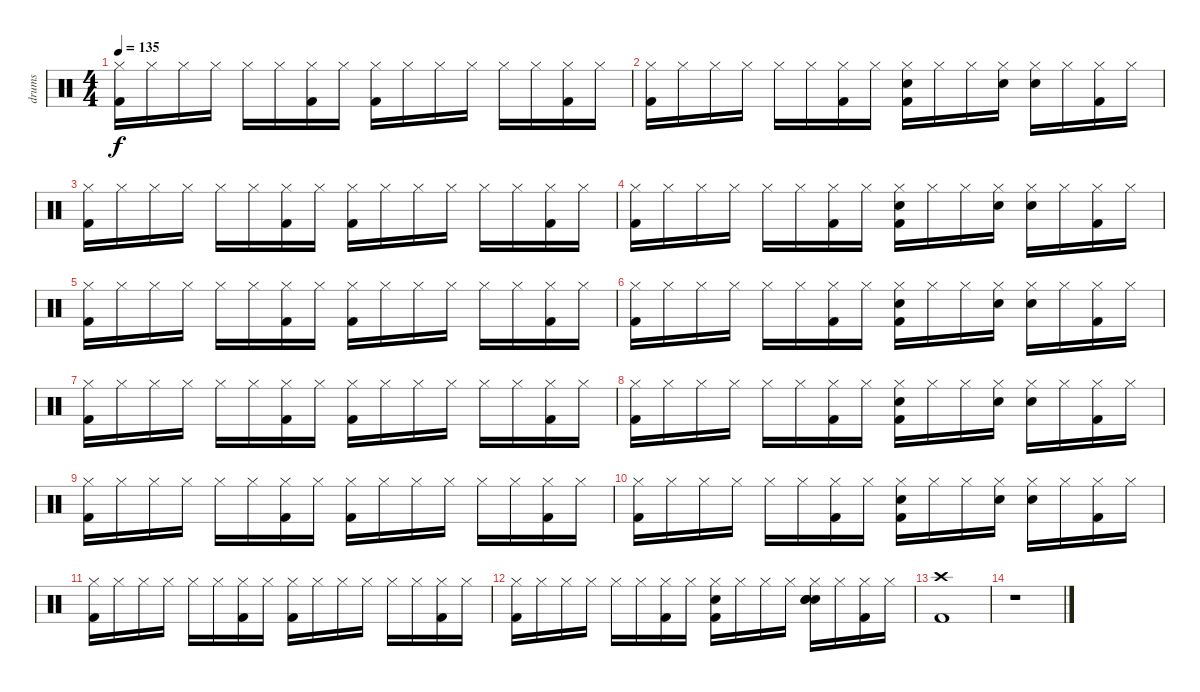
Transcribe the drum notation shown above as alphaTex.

\track ("drums" "drums") {instrument percussion}
\staff {score}
\articulation defaults
\ts (4 4)
\tempo 135
\clef neutral
\ks c
("Hi-Hat (closed)" "Kick (hit) 2").16{dy f} "Hi-Hat (closed)".16 "Hi-Hat (closed)".16 "Hi-Hat (closed)".16 "Hi-Hat (closed)".16 "Hi-Hat (closed)".16 ("Hi-Hat (closed)" "Kick (hit) 2").16 "Hi-Hat (closed)".16 ("Hi-Hat (closed)" "Kick (hit) 2").16 "Hi-Hat (closed)".16 "Hi-Hat (closed)".16 "Hi-Hat (closed)".16 "Hi-Hat (closed)".16 "Hi-Hat (closed)".16 ("Hi-Hat (closed)" "Kick (hit) 2").16 "Hi-Hat (closed)".16 |
("Hi-Hat (closed)" "Kick (hit) 2").16 "Hi-Hat (closed)".16 "Hi-Hat (closed)".16 "Hi-Hat (closed)".16 "Hi-Hat (closed)".16 "Hi-Hat (closed)".16 ("Hi-Hat (closed)" "Kick (hit) 2").16 "Hi-Hat (closed)".16 ("Hi-Hat (closed)" "Electric Snare (hit)" "Kick (hit) 2").16 "Hi-Hat (closed)".16 "Hi-Hat (closed)".16 ("Hi-Hat (closed)" "Electric Snare (hit)").16 ("Hi-Hat (closed)" "Electric Snare (hit)").16 "Hi-Hat (closed)".16 ("Hi-Hat (closed)" "Kick (hit) 2").16 "Hi-Hat (closed)".16 |
("Hi-Hat (closed)" "Kick (hit) 2").16 "Hi-Hat (closed)".16 "Hi-Hat (closed)".16 "Hi-Hat (closed)".16 "Hi-Hat (closed)".16 "Hi-Hat (closed)".16 ("Hi-Hat (closed)" "Kick (hit) 2").16 "Hi-Hat (closed)".16 ("Hi-Hat (closed)" "Kick (hit) 2").16 "Hi-Hat (closed)".16 "Hi-Hat (closed)".16 "Hi-Hat (closed)".16 "Hi-Hat (closed)".16 "Hi-Hat (closed)".16 ("Hi-Hat (closed)" "Kick (hit) 2").16 "Hi-Hat (closed)".16 |
("Hi-Hat (closed)" "Kick (hit) 2").16 "Hi-Hat (closed)".16 "Hi-Hat (closed)".16 "Hi-Hat (closed)".16 "Hi-Hat (closed)".16 "Hi-Hat (closed)".16 ("Hi-Hat (closed)" "Kick (hit) 2").16 "Hi-Hat (closed)".16 ("Hi-Hat (closed)" "Electric Snare (hit)" "Kick (hit) 2").16 "Hi-Hat (closed)".16 "Hi-Hat (closed)".16 ("Hi-Hat (closed)" "Electric Snare (hit)").16 ("Hi-Hat (closed)" "Electric Snare (hit)").16 "Hi-Hat (closed)".16 ("Hi-Hat (closed)" "Kick (hit) 2").16 "Hi-Hat (closed)".16 |
("Hi-Hat (closed)" "Kick (hit) 2").16 "Hi-Hat (closed)".16 "Hi-Hat (closed)".16 "Hi-Hat (closed)".16 "Hi-Hat (closed)".16 "Hi-Hat (closed)".16 ("Hi-Hat (closed)" "Kick (hit) 2").16 "Hi-Hat (closed)".16 ("Hi-Hat (closed)" "Kick (hit) 2").16 "Hi-Hat (closed)".16 "Hi-Hat (closed)".16 "Hi-Hat (closed)".16 "Hi-Hat (closed)".16 "Hi-Hat (closed)".16 ("Hi-Hat (closed)" "Kick (hit) 2").16 "Hi-Hat (closed)".16 |
("Hi-Hat (closed)" "Kick (hit) 2").16 "Hi-Hat (closed)".16 "Hi-Hat (closed)".16 "Hi-Hat (closed)".16 "Hi-Hat (closed)".16 "Hi-Hat (closed)".16 ("Hi-Hat (closed)" "Kick (hit) 2").16 "Hi-Hat (closed)".16 ("Hi-Hat (closed)" "Electric Snare (hit)" "Kick (hit) 2").16 "Hi-Hat (closed)".16 "Hi-Hat (closed)".16 ("Hi-Hat (closed)" "Electric Snare (hit)").16 ("Hi-Hat (closed)" "Electric Snare (hit)").16 "Hi-Hat (closed)".16 ("Hi-Hat (closed)" "Kick (hit) 2").16 "Hi-Hat (closed)".16 |
("Hi-Hat (closed)" "Kick (hit) 2").16 "Hi-Hat (closed)".16 "Hi-Hat (closed)".16 "Hi-Hat (closed)".16 "Hi-Hat (closed)".16 "Hi-Hat (closed)".16 ("Hi-Hat (closed)" "Kick (hit) 2").16 "Hi-Hat (closed)".16 ("Hi-Hat (closed)" "Kick (hit) 2").16 "Hi-Hat (closed)".16 "Hi-Hat (closed)".16 "Hi-Hat (closed)".16 "Hi-Hat (closed)".16 "Hi-Hat (closed)".16 ("Hi-Hat (closed)" "Kick (hit) 2").16 "Hi-Hat (closed)".16 |
("Hi-Hat (closed)" "Kick (hit) 2").16 "Hi-Hat (closed)".16 "Hi-Hat (closed)".16 "Hi-Hat (closed)".16 "Hi-Hat (closed)".16 "Hi-Hat (closed)".16 ("Hi-Hat (closed)" "Kick (hit) 2").16 "Hi-Hat (closed)".16 ("Hi-Hat (closed)" "Electric Snare (hit)" "Kick (hit) 2").16 "Hi-Hat (closed)".16 "Hi-Hat (closed)".16 ("Hi-Hat (closed)" "Electric Snare (hit)").16 ("Hi-Hat (closed)" "Electric Snare (hit)").16 "Hi-Hat (closed)".16 ("Hi-Hat (closed)" "Kick (hit) 2").16 "Hi-Hat (closed)".16 |
("Hi-Hat (closed)" "Kick (hit) 2").16 "Hi-Hat (closed)".16 "Hi-Hat (closed)".16 "Hi-Hat (closed)".16 "Hi-Hat (closed)".16 "Hi-Hat (closed)".16 ("Hi-Hat (closed)" "Kick (hit) 2").16 "Hi-Hat (closed)".16 ("Hi-Hat (closed)" "Kick (hit) 2").16 "Hi-Hat (closed)".16 "Hi-Hat (closed)".16 "Hi-Hat (closed)".16 "Hi-Hat (closed)".16 "Hi-Hat (closed)".16 ("Hi-Hat (closed)" "Kick (hit) 2").16 "Hi-Hat (closed)".16 |
("Hi-Hat (closed)" "Kick (hit) 2").16 "Hi-Hat (closed)".16 "Hi-Hat (closed)".16 "Hi-Hat (closed)".16 "Hi-Hat (closed)".16 "Hi-Hat (closed)".16 ("Hi-Hat (closed)" "Kick (hit) 2").16 "Hi-Hat (closed)".16 ("Hi-Hat (closed)" "Electric Snare (hit)" "Kick (hit) 2").16 "Hi-Hat (closed)".16 "Hi-Hat (closed)".16 ("Hi-Hat (closed)" "Electric Snare (hit)").16 ("Hi-Hat (closed)" "Electric Snare (hit)").16 "Hi-Hat (closed)".16 ("Hi-Hat (closed)" "Kick (hit) 2").16 "Hi-Hat (closed)".16 |
("Hi-Hat (closed)" "Kick (hit) 2").16 "Hi-Hat (closed)".16 "Hi-Hat (closed)".16 "Hi-Hat (closed)".16 "Hi-Hat (closed)".16 "Hi-Hat (closed)".16 ("Hi-Hat (closed)" "Kick (hit) 2").16 "Hi-Hat (closed)".16 ("Hi-Hat (closed)" "Kick (hit) 2").16 "Hi-Hat (closed)".16 "Hi-Hat (closed)".16 "Hi-Hat (closed)".16 "Hi-Hat (closed)".16 "Hi-Hat (closed)".16 ("Hi-Hat (closed)" "Kick (hit) 2").16 "Hi-Hat (closed)".16 |
("Hi-Hat (closed)" "Kick (hit) 2").16 "Hi-Hat (closed)".16 "Hi-Hat (closed)".16 "Hi-Hat (closed)".16 "Hi-Hat (closed)".16 "Hi-Hat (closed)".16 ("Hi-Hat (closed)" "Kick (hit) 2").16 "Hi-Hat (closed)".16 ("Hi-Hat (closed)" "Electric Snare (hit)" "Kick (hit) 2").16 "Hi-Hat (closed)".16 "Hi-Hat (closed)".16 "Hi-Hat (closed)".16 ("Hi-Hat (closed)" "Electric Snare (hit)" "Electric Snare (hit)" "Electric Snare (hit)").16 "Hi-Hat (closed)".16 ("Hi-Hat (closed)" "Kick (hit) 2").16 "Hi-Hat (closed)".16 |
("Crash high (hit)" "Kick (hit) 2").1 |
r.1
